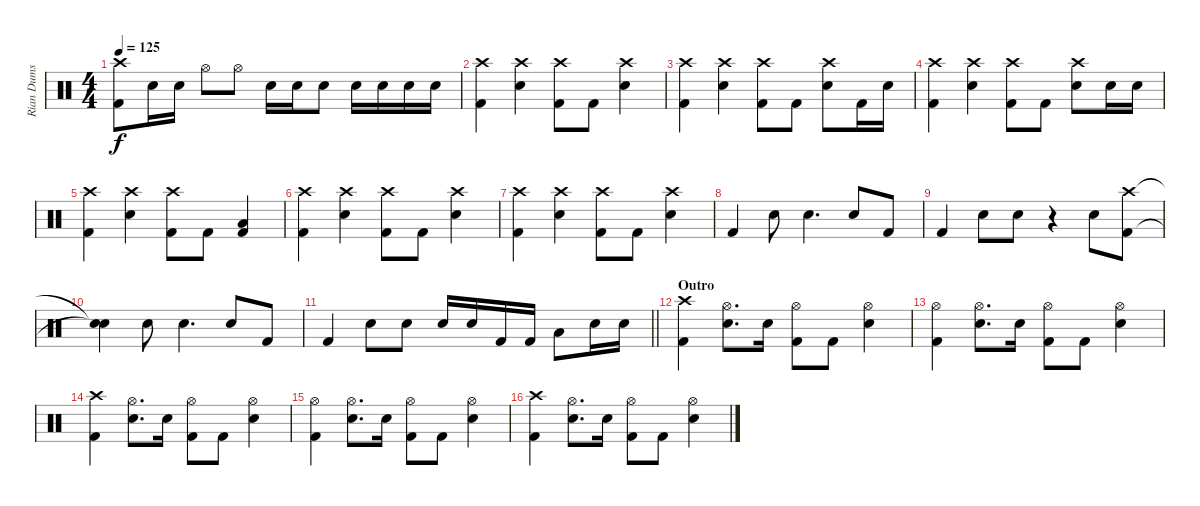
\track ("Rian Dums" "Rian Dums") {instrument percussion}
\staff {score}
\articulation defaults
\ts (4 4)
\tempo 125
\clef neutral
\ks c
("Crash high (hit)" "Kick (hit) 2").8{dy f} "Snare (hit) 2".16 "Snare (hit) 2".16 "Hi-Hat (open)".8 "Hi-Hat (open)".8 "Snare (hit) 2".16 "Snare (hit) 2".16 "Snare (hit) 2".8 "Snare (hit) 2".16 "Snare (hit) 2".16 "Snare (hit) 2".16 "Snare (hit) 2".16 |
("Crash high (hit)" "Kick (hit) 2").4 ("Crash high (hit)" "Snare (hit) 2").4 ("Crash high (hit)" "Kick (hit) 2").8 "Kick (hit) 2".8 ("Crash high (hit)" "Snare (hit) 2").4 |
("Crash high (hit)" "Kick (hit) 2").4 ("Crash high (hit)" "Snare (hit) 2").4 ("Crash high (hit)" "Kick (hit) 2").8 "Kick (hit) 2".8 ("Crash high (hit)" "Snare (hit) 2").8 "Kick (hit) 2".16 "Snare (hit) 2".16 |
("Crash high (hit)" "Kick (hit) 2").4 ("Crash high (hit)" "Snare (hit) 2").4 ("Crash high (hit)" "Kick (hit) 2").8 "Kick (hit) 2".8 ("Crash high (hit)" "Snare (hit) 2").8 "Snare (hit) 2".16 "Snare (hit) 2".16 |
("Crash high (hit)" "Kick (hit) 2").4 ("Crash high (hit)" "Snare (hit) 2").4 ("Crash high (hit)" "Kick (hit) 2").8 "Kick (hit) 2".8 ("Kick (hit) 2" "Low Floor Tom (hit)").4 |
("Crash high (hit)" "Kick (hit) 2").4 ("Crash high (hit)" "Snare (hit) 2").4 ("Crash high (hit)" "Kick (hit) 2").8 "Kick (hit) 2".8 ("Crash high (hit)" "Snare (hit) 2").4 |
("Crash high (hit)" "Kick (hit) 2").4 ("Crash high (hit)" "Snare (hit) 2").4 ("Crash high (hit)" "Kick (hit) 2").8 "Kick (hit) 2".8 ("Crash high (hit)" "Snare (hit) 2").4 |
"Kick (hit) 2".4 "Snare (hit) 2".8 "Snare (hit) 2".4{d} "Snare (hit) 2".8 "Kick (hit) 2".8 |
"Kick (hit) 2".4 "Snare (hit) 2".8 "Snare (hit) 2".8 r.4 "Snare (hit) 2".8 ("Crash high (hit)" "Kick (hit) 2").8 |
("Snare (hit)"{t} "Snare (hit)"{t}).4 "Snare (hit) 2".8 "Snare (hit) 2".4{d} "Snare (hit) 2".8 "Kick (hit) 2".8 |
\barLineRight lightlight "Kick (hit) 2".4 "Snare (hit) 2".8 "Snare (hit) 2".8 "Snare (hit) 2".16 "Snare (hit) 2".16 "Kick (hit) 2".16 "Kick (hit) 2".16 "Low Floor Tom (hit)".8 "Snare (hit) 2".16 "Snare (hit) 2".16
|
\section ("" "Outro")
("Crash high (hit)" "Kick (hit) 2").4 ("Hi-Hat (open)" "Snare (hit) 2").8{d} "Snare (hit) 2".16 ("Hi-Hat (open)" "Kick (hit) 2").8 "Kick (hit) 2".8 ("Hi-Hat (open)" "Snare (hit) 2").4 |
("Hi-Hat (open)" "Kick (hit) 2").4 ("Hi-Hat (open)" "Snare (hit) 2").8{d} "Snare (hit) 2".16 ("Hi-Hat (open)" "Kick (hit) 2").8 "Kick (hit) 2".8 ("Hi-Hat (open)" "Snare (hit) 2").4 |
("Crash high (hit)" "Kick (hit) 2").4 ("Hi-Hat (open)" "Snare (hit) 2").8{d} "Snare (hit) 2".16 ("Hi-Hat (open)" "Kick (hit) 2").8 "Kick (hit) 2".8 ("Hi-Hat (open)" "Snare (hit) 2").4 |
("Hi-Hat (open)" "Kick (hit) 2").4 ("Hi-Hat (open)" "Snare (hit) 2").8{d} "Snare (hit) 2".16 ("Hi-Hat (open)" "Kick (hit) 2").8 "Kick (hit) 2".8 ("Hi-Hat (open)" "Snare (hit) 2").4 |
("Crash high (hit)" "Kick (hit) 2").4 ("Hi-Hat (open)" "Snare (hit) 2").8{d} "Snare (hit) 2".16 ("Hi-Hat (open)" "Kick (hit) 2").8 "Kick (hit) 2".8 ("Hi-Hat (open)" "Snare (hit) 2").4
